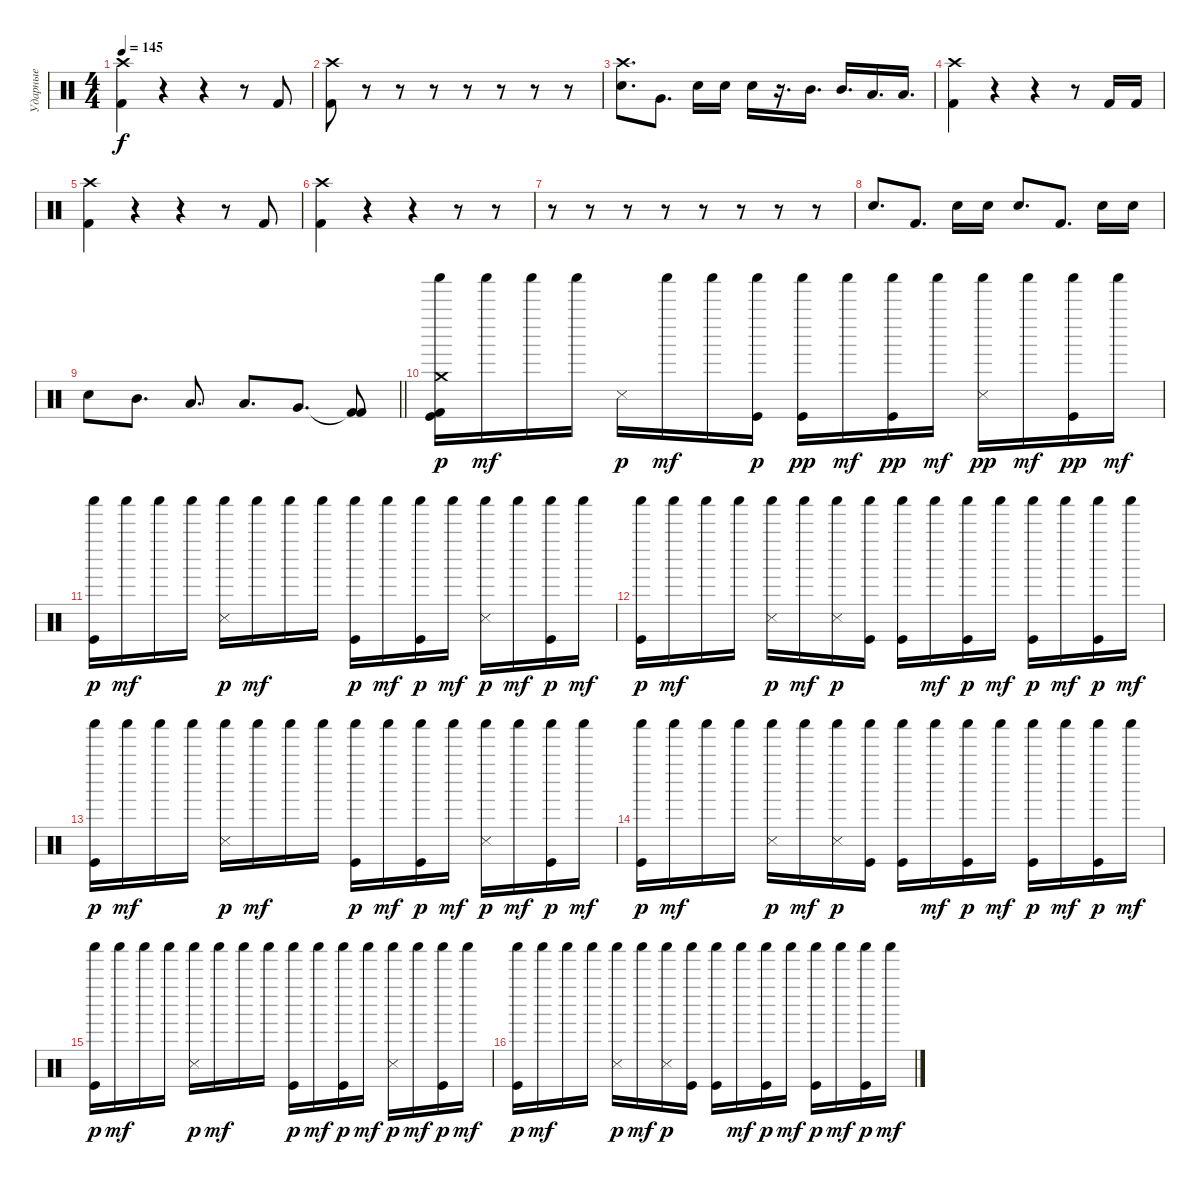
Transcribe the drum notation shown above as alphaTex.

\track ("Ударные" "Ударные") {instrument percussion bank 127}
\staff
\articulation defaults
\ts (4 4)
\tempo 145
\clef neutral
\ks c
("Kick (hit) 2" "Crash high (hit)").4{dy f} r.4 r.4 r.8 "Kick (hit) 2".8 |
("Kick (hit) 2" "Crash high (hit)").8 r.8 r.8 r.8 r.8 r.8 r.8 r.8 |
("Snare (hit) 2" "Crash high (hit)").8{d} "Very Low Tom (hit)".8{d} "Snare (hit) 2".16 "Snare (hit) 2".16 "Snare (hit) 2".16 r.16{d} "Mid Tom (hit)".16{d} "Mid Tom (hit)".16{d} "Low Tom (hit)".16{d} "Low Tom (hit)".16{d} |
("Kick (hit) 2" "Crash high (hit)").4 r.4 r.4 r.8 "Kick (hit) 2".16 "Kick (hit) 2".16 |
("Kick (hit) 2" "Crash high (hit)").4 r.4 r.4 r.8 "Kick (hit) 2".8 |
("Kick (hit) 2" "Crash high (hit)").4 r.4 r.4 r.8 r.8 |
r.8 r.8 r.8 r.8 r.8 r.8 r.8 r.8 |
"Snare (hit) 2".8{d} "Kick (hit) 2".8{d} "Snare (hit) 2".16 "Snare (hit) 2".16 "Snare (hit) 2".8{d} "Kick (hit) 2".8{d} "Snare (hit) 2".16 "Snare (hit) 2".16 |
\barLineRight lightlight "Snare (hit) 2".8 "Mid Tom (hit)".8{d} "Low Tom (hit)".8{d} "Low Tom (hit)".8{d} "Very Low Tom (hit)".8{d}
("Kick (hit) 2"{t} "Kick (hit) 2").8 |
("Kick (hit)" "Shaker (hit)" "Kick (hit) 2" "Crash medium (hit)").16{dy p} "Shaker (hit)".16{dy mf} "Shaker (hit)".16 "Shaker (hit)".16 "Metronome (hit)".16{dy p} "Shaker (hit)".16{dy mf} "Shaker (hit)".16 ("Shaker (hit)" "Kick (hit)").16{dy p} ("Shaker (hit)" "Kick (hit)").16{dy pp} "Shaker (hit)".16{dy mf} ("Shaker (hit)" "Kick (hit)").16{dy pp} "Shaker (hit)".16{dy mf} ("Shaker (hit)" "Metronome (hit)").16{dy pp} "Shaker (hit)".16{dy mf} ("Shaker (hit)" "Kick (hit)").16{dy pp} "Shaker (hit)".16{dy mf} |
("Shaker (hit)" "Kick (hit)").16{dy p} "Shaker (hit)".16{dy mf} "Shaker (hit)".16 "Shaker (hit)".16 ("Shaker (hit)" "Metronome (hit)").16{dy p} "Shaker (hit)".16{dy mf} "Shaker (hit)".16 "Shaker (hit)".16 ("Shaker (hit)" "Kick (hit)").16{dy p} "Shaker (hit)".16{dy mf} ("Shaker (hit)" "Kick (hit)").16{dy p} "Shaker (hit)".16{dy mf} ("Shaker (hit)" "Metronome (hit)").16{dy p} "Shaker (hit)".16{dy mf} ("Shaker (hit)" "Kick (hit)").16{dy p} "Shaker (hit)".16{dy mf} |
("Shaker (hit)" "Kick (hit)").16{dy p} "Shaker (hit)".16{dy mf} "Shaker (hit)".16 "Shaker (hit)".16 ("Shaker (hit)" "Metronome (hit)").16{dy p} "Shaker (hit)".16{dy mf} ("Shaker (hit)" "Metronome (hit)").16{dy p} ("Shaker (hit)" "Kick (hit)").16 ("Shaker (hit)" "Kick (hit)").16 "Shaker (hit)".16{dy mf} ("Shaker (hit)" "Kick (hit)").16{dy p} "Shaker (hit)".16{dy mf} ("Shaker (hit)" "Kick (hit)").16{dy p} "Shaker (hit)".16{dy mf} ("Shaker (hit)" "Kick (hit)").16{dy p} "Shaker (hit)".16{dy mf} |
("Shaker (hit)" "Kick (hit)").16{dy p} "Shaker (hit)".16{dy mf} "Shaker (hit)".16 "Shaker (hit)".16 ("Shaker (hit)" "Metronome (hit)").16{dy p} "Shaker (hit)".16{dy mf} "Shaker (hit)".16 "Shaker (hit)".16 ("Shaker (hit)" "Kick (hit)").16{dy p} "Shaker (hit)".16{dy mf} ("Shaker (hit)" "Kick (hit)").16{dy p} "Shaker (hit)".16{dy mf} ("Shaker (hit)" "Metronome (hit)").16{dy p} "Shaker (hit)".16{dy mf} ("Shaker (hit)" "Kick (hit)").16{dy p} "Shaker (hit)".16{dy mf} |
("Shaker (hit)" "Kick (hit)").16{dy p} "Shaker (hit)".16{dy mf} "Shaker (hit)".16 "Shaker (hit)".16 ("Shaker (hit)" "Metronome (hit)").16{dy p} "Shaker (hit)".16{dy mf} ("Shaker (hit)" "Metronome (hit)").16{dy p} ("Shaker (hit)" "Kick (hit)").16 ("Shaker (hit)" "Kick (hit)").16 "Shaker (hit)".16{dy mf} ("Shaker (hit)" "Kick (hit)").16{dy p} "Shaker (hit)".16{dy mf} ("Shaker (hit)" "Kick (hit)").16{dy p} "Shaker (hit)".16{dy mf} ("Shaker (hit)" "Kick (hit)").16{dy p} "Shaker (hit)".16{dy mf} |
("Shaker (hit)" "Kick (hit)").16{dy p} "Shaker (hit)".16{dy mf} "Shaker (hit)".16 "Shaker (hit)".16 ("Shaker (hit)" "Metronome (hit)").16{dy p} "Shaker (hit)".16{dy mf} "Shaker (hit)".16 "Shaker (hit)".16 ("Shaker (hit)" "Kick (hit)").16{dy p} "Shaker (hit)".16{dy mf} ("Shaker (hit)" "Kick (hit)").16{dy p} "Shaker (hit)".16{dy mf} ("Shaker (hit)" "Metronome (hit)").16{dy p} "Shaker (hit)".16{dy mf} ("Shaker (hit)" "Kick (hit)").16{dy p} "Shaker (hit)".16{dy mf} |
("Shaker (hit)" "Kick (hit)").16{dy p} "Shaker (hit)".16{dy mf} "Shaker (hit)".16 "Shaker (hit)".16 ("Shaker (hit)" "Metronome (hit)").16{dy p} "Shaker (hit)".16{dy mf} ("Shaker (hit)" "Metronome (hit)").16{dy p} ("Shaker (hit)" "Kick (hit)").16 ("Shaker (hit)" "Kick (hit)").16 "Shaker (hit)".16{dy mf} ("Shaker (hit)" "Kick (hit)").16{dy p} "Shaker (hit)".16{dy mf} ("Shaker (hit)" "Kick (hit)").16{dy p} "Shaker (hit)".16{dy mf} ("Shaker (hit)" "Kick (hit)").16{dy p} "Shaker (hit)".16{dy mf}
